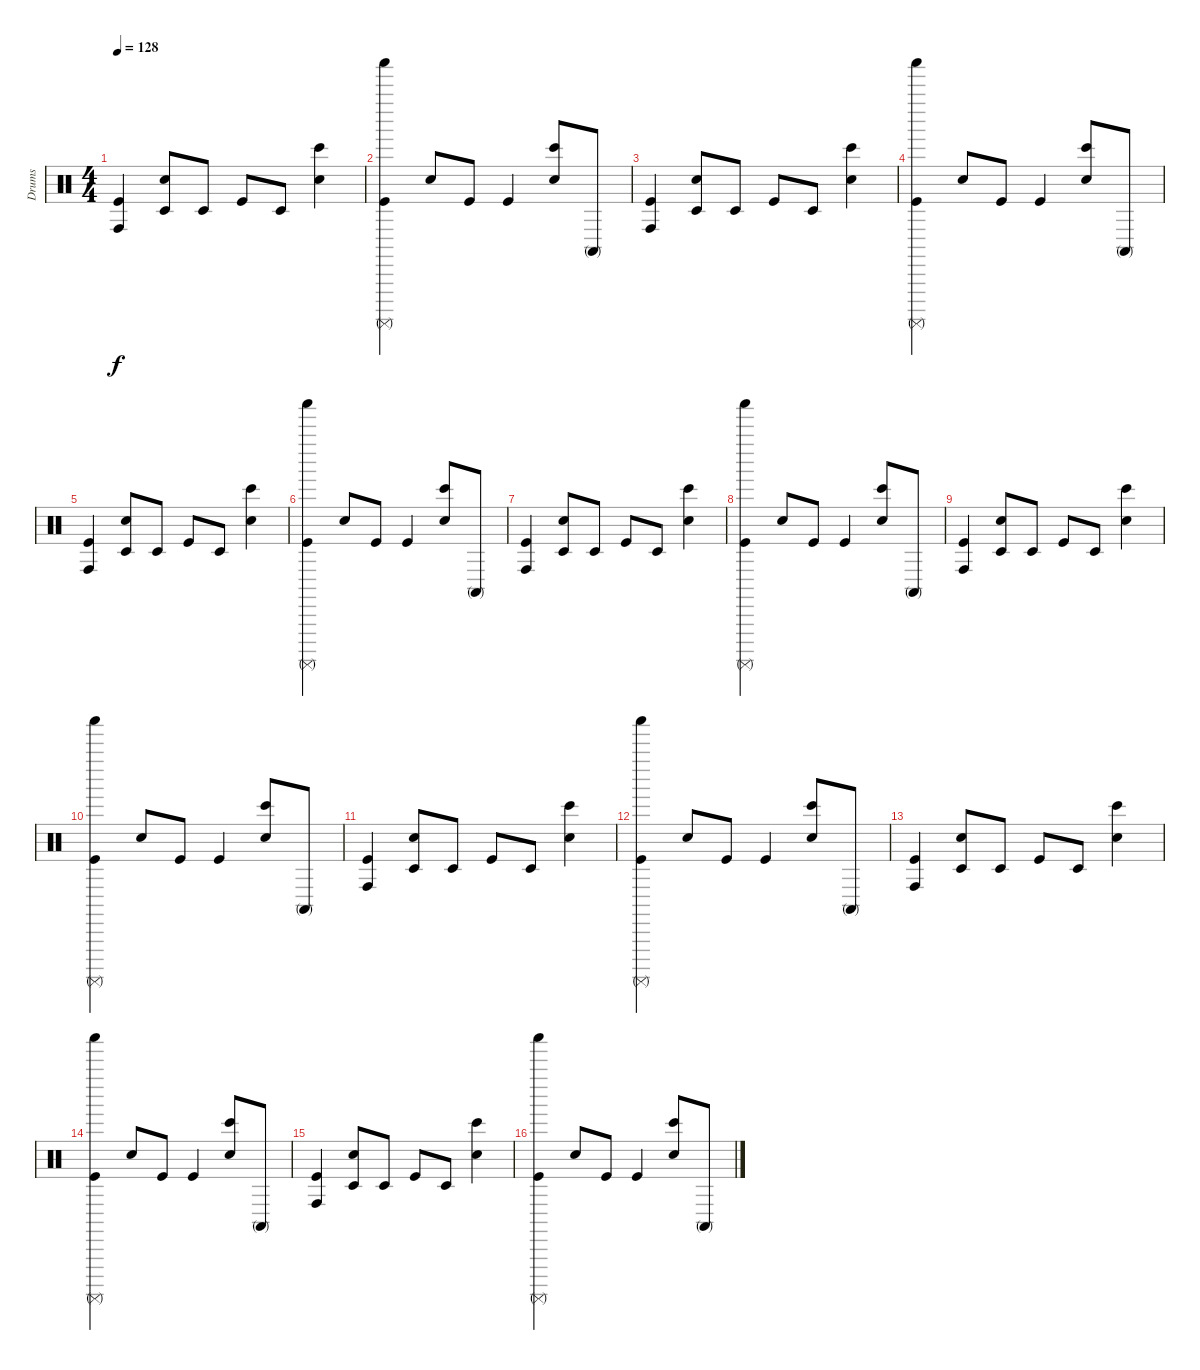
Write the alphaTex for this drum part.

\track ("Drums" "Drums") {instrument percussion}
\staff {score}
\articulation defaults
\ts (4 4)
\tempo 128
\clef neutral
\ks c
("Conga high (hit)" "Kick (hit)").4{dy f} ("Timbale low (hit)" "Electric Snare (hit)").8 "Timbale low (hit)".8 "Kick (hit)".8 "Timbale low (hit)".8 ("Bongo High (hit)" "Electric Snare (hit)").4 |
("Surdo (mute)" "Shaker (hit)" "Kick (hit)").4 "Electric Snare (hit)".8 "Kick (hit)".8 "Kick (hit)".4 ("Bongo High (hit)" "Electric Snare (hit)").8 "Conga high (mute)".8 |
("Conga high (hit)" "Kick (hit)").4 ("Timbale low (hit)" "Electric Snare (hit)").8 "Timbale low (hit)".8 "Kick (hit)".8 "Timbale low (hit)".8 ("Bongo High (hit)" "Electric Snare (hit)").4 |
("Surdo (mute)" "Shaker (hit)" "Kick (hit)").4 "Electric Snare (hit)".8 "Kick (hit)".8 "Kick (hit)".4 ("Bongo High (hit)" "Electric Snare (hit)").8 "Conga high (mute)".8 |
("Conga high (hit)" "Kick (hit)").4 ("Timbale low (hit)" "Electric Snare (hit)").8 "Timbale low (hit)".8 "Kick (hit)".8 "Timbale low (hit)".8 ("Bongo High (hit)" "Electric Snare (hit)").4 |
("Surdo (mute)" "Shaker (hit)" "Kick (hit)").4 "Electric Snare (hit)".8 "Kick (hit)".8 "Kick (hit)".4 ("Bongo High (hit)" "Electric Snare (hit)").8 "Conga high (mute)".8 |
("Conga high (hit)" "Kick (hit)").4 ("Timbale low (hit)" "Electric Snare (hit)").8 "Timbale low (hit)".8 "Kick (hit)".8 "Timbale low (hit)".8 ("Bongo High (hit)" "Electric Snare (hit)").4 |
("Surdo (mute)" "Shaker (hit)" "Kick (hit)").4 "Electric Snare (hit)".8 "Kick (hit)".8 "Kick (hit)".4 ("Bongo High (hit)" "Electric Snare (hit)").8 "Conga high (mute)".8 |
("Conga high (hit)" "Kick (hit)").4 ("Timbale low (hit)" "Electric Snare (hit)").8 "Timbale low (hit)".8 "Kick (hit)".8 "Timbale low (hit)".8 ("Bongo High (hit)" "Electric Snare (hit)").4 |
("Surdo (mute)" "Shaker (hit)" "Kick (hit)").4 "Electric Snare (hit)".8 "Kick (hit)".8 "Kick (hit)".4 ("Bongo High (hit)" "Electric Snare (hit)").8 "Conga high (mute)".8 |
("Conga high (hit)" "Kick (hit)").4 ("Timbale low (hit)" "Electric Snare (hit)").8 "Timbale low (hit)".8 "Kick (hit)".8 "Timbale low (hit)".8 ("Bongo High (hit)" "Electric Snare (hit)").4 |
("Surdo (mute)" "Shaker (hit)" "Kick (hit)").4 "Electric Snare (hit)".8 "Kick (hit)".8 "Kick (hit)".4 ("Bongo High (hit)" "Electric Snare (hit)").8 "Conga high (mute)".8 |
("Conga high (hit)" "Kick (hit)").4 ("Timbale low (hit)" "Electric Snare (hit)").8 "Timbale low (hit)".8 "Kick (hit)".8 "Timbale low (hit)".8 ("Bongo High (hit)" "Electric Snare (hit)").4 |
("Surdo (mute)" "Shaker (hit)" "Kick (hit)").4 "Electric Snare (hit)".8 "Kick (hit)".8 "Kick (hit)".4 ("Bongo High (hit)" "Electric Snare (hit)").8 "Conga high (mute)".8 |
("Conga high (hit)" "Kick (hit)").4 ("Timbale low (hit)" "Electric Snare (hit)").8 "Timbale low (hit)".8 "Kick (hit)".8 "Timbale low (hit)".8 ("Bongo High (hit)" "Electric Snare (hit)").4 |
("Surdo (mute)" "Shaker (hit)" "Kick (hit)").4 "Electric Snare (hit)".8 "Kick (hit)".8 "Kick (hit)".4 ("Bongo High (hit)" "Electric Snare (hit)").8 "Conga high (mute)".8
